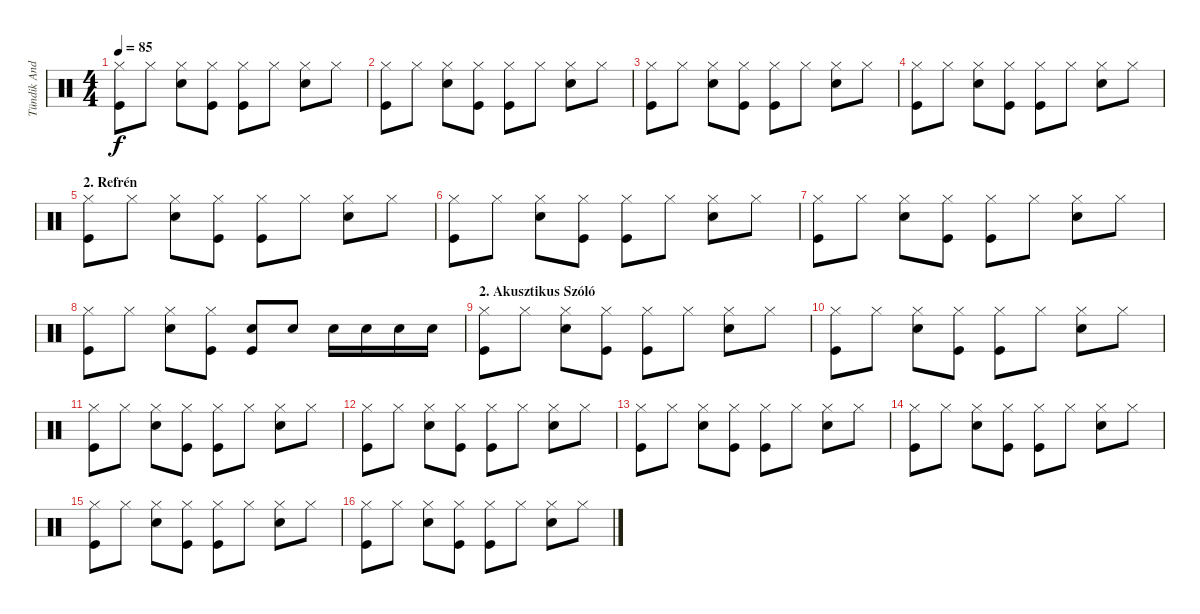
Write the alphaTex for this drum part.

\track ("Tündik András - Dob" "Tündik And") {instrument percussion}
\staff {score}
\articulation defaults
\ts (4 4)
\tempo 85
\clef neutral
\ks c
("Hi-Hat (closed)" "Kick (hit)").8{dy f} "Hi-Hat (closed)".8 ("Snare (hit) 2" "Hi-Hat (closed)").8 ("Hi-Hat (closed)" "Kick (hit)").8 ("Hi-Hat (closed)" "Kick (hit)").8 "Hi-Hat (closed)".8 ("Snare (hit) 2" "Hi-Hat (closed)").8 "Hi-Hat (closed)".8 |
("Hi-Hat (closed)" "Kick (hit)").8 "Hi-Hat (closed)".8 ("Snare (hit) 2" "Hi-Hat (closed)").8 ("Hi-Hat (closed)" "Kick (hit)").8 ("Hi-Hat (closed)" "Kick (hit)").8 "Hi-Hat (closed)".8 ("Snare (hit) 2" "Hi-Hat (closed)").8 "Hi-Hat (closed)".8 |
("Hi-Hat (closed)" "Kick (hit)").8 "Hi-Hat (closed)".8 ("Snare (hit) 2" "Hi-Hat (closed)").8 ("Hi-Hat (closed)" "Kick (hit)").8 ("Hi-Hat (closed)" "Kick (hit)").8 "Hi-Hat (closed)".8 ("Snare (hit) 2" "Hi-Hat (closed)").8 "Hi-Hat (closed)".8 |
("Hi-Hat (closed)" "Kick (hit)").8 "Hi-Hat (closed)".8 ("Snare (hit) 2" "Hi-Hat (closed)").8 ("Hi-Hat (closed)" "Kick (hit)").8 ("Hi-Hat (closed)" "Kick (hit)").8 "Hi-Hat (closed)".8 ("Snare (hit) 2" "Hi-Hat (closed)").8 "Hi-Hat (closed)".8 |
\section ("" "2. Refrén")
("Hi-Hat (closed)" "Kick (hit)").8 "Hi-Hat (closed)".8 ("Snare (hit) 2" "Hi-Hat (closed)").8 ("Hi-Hat (closed)" "Kick (hit)").8 ("Hi-Hat (closed)" "Kick (hit)").8 "Hi-Hat (closed)".8 ("Snare (hit) 2" "Hi-Hat (closed)").8 "Hi-Hat (closed)".8 |
("Hi-Hat (closed)" "Kick (hit)").8 "Hi-Hat (closed)".8 ("Snare (hit) 2" "Hi-Hat (closed)").8 ("Hi-Hat (closed)" "Kick (hit)").8 ("Hi-Hat (closed)" "Kick (hit)").8 "Hi-Hat (closed)".8 ("Snare (hit) 2" "Hi-Hat (closed)").8 "Hi-Hat (closed)".8 |
("Hi-Hat (closed)" "Kick (hit)").8 "Hi-Hat (closed)".8 ("Snare (hit) 2" "Hi-Hat (closed)").8 ("Hi-Hat (closed)" "Kick (hit)").8 ("Hi-Hat (closed)" "Kick (hit)").8 "Hi-Hat (closed)".8 ("Snare (hit) 2" "Hi-Hat (closed)").8 "Hi-Hat (closed)".8 |
("Hi-Hat (closed)" "Kick (hit)").8 "Hi-Hat (closed)".8 ("Hi-Hat (closed)" "Snare (hit) 2").8 ("Hi-Hat (closed)" "Kick (hit)").8 ("Snare (hit) 2" "Kick (hit)").8 "Snare (hit) 2".8 "Snare (hit) 2".16 "Snare (hit) 2".16 "Snare (hit) 2".16 "Snare (hit) 2".16 |
\section ("" "2. Akusztikus Szóló")
("Hi-Hat (closed)" "Kick (hit)").8 "Hi-Hat (closed)".8 ("Snare (hit) 2" "Hi-Hat (closed)").8 ("Hi-Hat (closed)" "Kick (hit)").8 ("Hi-Hat (closed)" "Kick (hit)").8 "Hi-Hat (closed)".8 ("Snare (hit) 2" "Hi-Hat (closed)").8 "Hi-Hat (closed)".8 |
("Hi-Hat (closed)" "Kick (hit)").8 "Hi-Hat (closed)".8 ("Snare (hit) 2" "Hi-Hat (closed)").8 ("Hi-Hat (closed)" "Kick (hit)").8 ("Hi-Hat (closed)" "Kick (hit)").8 "Hi-Hat (closed)".8 ("Snare (hit) 2" "Hi-Hat (closed)").8 "Hi-Hat (closed)".8 |
("Hi-Hat (closed)" "Kick (hit)").8 "Hi-Hat (closed)".8 ("Snare (hit) 2" "Hi-Hat (closed)").8 ("Hi-Hat (closed)" "Kick (hit)").8 ("Hi-Hat (closed)" "Kick (hit)").8 "Hi-Hat (closed)".8 ("Snare (hit) 2" "Hi-Hat (closed)").8 "Hi-Hat (closed)".8 |
("Hi-Hat (closed)" "Kick (hit)").8 "Hi-Hat (closed)".8 ("Snare (hit) 2" "Hi-Hat (closed)").8 ("Hi-Hat (closed)" "Kick (hit)").8 ("Hi-Hat (closed)" "Kick (hit)").8 "Hi-Hat (closed)".8 ("Snare (hit) 2" "Hi-Hat (closed)").8 "Hi-Hat (closed)".8 |
("Hi-Hat (closed)" "Kick (hit)").8 "Hi-Hat (closed)".8 ("Snare (hit) 2" "Hi-Hat (closed)").8 ("Hi-Hat (closed)" "Kick (hit)").8 ("Hi-Hat (closed)" "Kick (hit)").8 "Hi-Hat (closed)".8 ("Snare (hit) 2" "Hi-Hat (closed)").8 "Hi-Hat (closed)".8 |
("Hi-Hat (closed)" "Kick (hit)").8 "Hi-Hat (closed)".8 ("Snare (hit) 2" "Hi-Hat (closed)").8 ("Hi-Hat (closed)" "Kick (hit)").8 ("Hi-Hat (closed)" "Kick (hit)").8 "Hi-Hat (closed)".8 ("Snare (hit) 2" "Hi-Hat (closed)").8 "Hi-Hat (closed)".8 |
("Hi-Hat (closed)" "Kick (hit)").8 "Hi-Hat (closed)".8 ("Snare (hit) 2" "Hi-Hat (closed)").8 ("Hi-Hat (closed)" "Kick (hit)").8 ("Hi-Hat (closed)" "Kick (hit)").8 "Hi-Hat (closed)".8 ("Snare (hit) 2" "Hi-Hat (closed)").8 "Hi-Hat (closed)".8 |
("Hi-Hat (closed)" "Kick (hit)").8 "Hi-Hat (closed)".8 ("Snare (hit) 2" "Hi-Hat (closed)").8 ("Hi-Hat (closed)" "Kick (hit)").8 ("Hi-Hat (closed)" "Kick (hit)").8 "Hi-Hat (closed)".8 ("Snare (hit) 2" "Hi-Hat (closed)").8 "Hi-Hat (closed)".8
